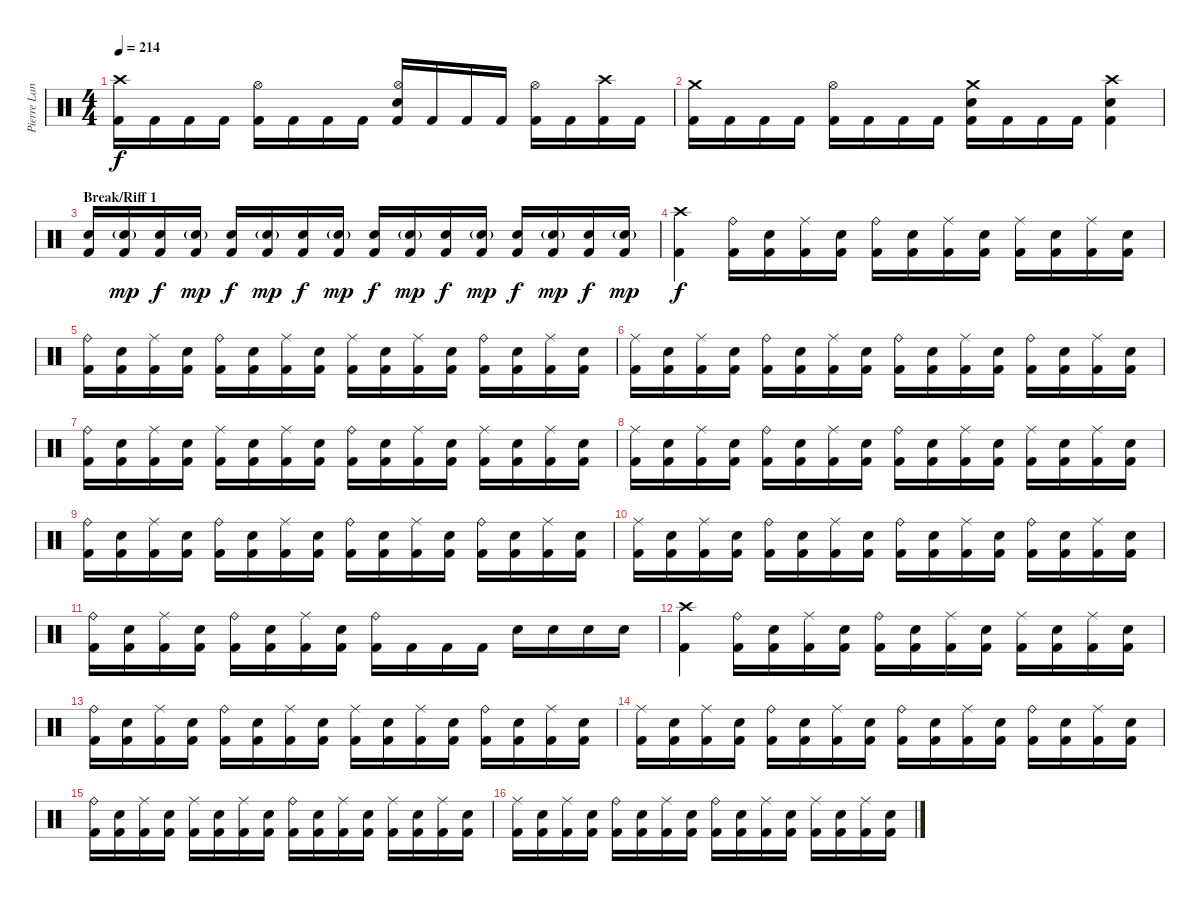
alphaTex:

\track ("Pierre Langlois (Drums)" "Pierre Lan") {instrument percussion}
\staff {score}
\articulation defaults
\ts (4 4)
\tempo 214
\clef neutral
\ks c
("Crash high (hit)" "Kick (hit) 2").16{dy f} "Kick (hit) 2".16 "Kick (hit) 2".16 "Kick (hit) 2".16 ("Hi-Hat (open)" "Kick (hit) 2").16 "Kick (hit) 2".16 "Kick (hit) 2".16 "Kick (hit) 2".16 ("Hi-Hat (open)" "Snare (hit) 2" "Kick (hit) 2").16 "Kick (hit) 2".16 "Kick (hit) 2".16 "Kick (hit) 2".16 ("Hi-Hat (open)" "Kick (hit) 2").16 "Kick (hit) 2".16 ("Crash high (hit)" "Kick (hit) 2").16 "Kick (hit) 2".16 |
("Crash medium (hit)" "Kick (hit) 2").16 "Kick (hit) 2".16 "Kick (hit) 2".16 "Kick (hit) 2".16 ("Hi-Hat (open)" "Kick (hit) 2").16 "Kick (hit) 2".16 "Kick (hit) 2".16 "Kick (hit) 2".16 ("Crash medium (hit)" "Snare (hit) 2" "Kick (hit) 2").16 "Kick (hit) 2".16 "Kick (hit) 2".16 "Kick (hit) 2".16 ("Crash high (hit)" "Snare (hit) 2" "Kick (hit) 2").4 |
\section ("" "Break/Riff 1")
("Snare (hit) 2" "Kick (hit) 2").16 ("Snare (hit) 2"{g} "Kick (hit) 2").16{dy mp} ("Snare (hit) 2" "Kick (hit) 2").16{dy f} ("Snare (hit) 2"{g} "Kick (hit) 2").16{dy mp} ("Snare (hit) 2" "Kick (hit) 2").16{dy f} ("Snare (hit) 2"{g} "Kick (hit) 2").16{dy mp} ("Snare (hit) 2" "Kick (hit) 2").16{dy f} ("Snare (hit) 2"{g} "Kick (hit) 2").16{dy mp} ("Snare (hit) 2" "Kick (hit) 2").16{dy f} ("Snare (hit) 2"{g} "Kick (hit) 2").16{dy mp} ("Snare (hit) 2" "Kick (hit) 2").16{dy f} ("Snare (hit) 2"{g} "Kick (hit) 2").16{dy mp} ("Snare (hit) 2" "Kick (hit) 2").16{dy f} ("Snare (hit) 2"{g} "Kick (hit) 2").16{dy mp} ("Snare (hit) 2" "Kick (hit) 2").16{dy f} ("Snare (hit) 2"{g} "Kick (hit) 2").16{dy mp} |
("Crash high (hit)" "Kick (hit) 2").4{dy f} ("Ride (bell)" "Kick (hit) 2").16 ("Snare (hit) 2" "Kick (hit) 2").16 ("Ride (middle)" "Kick (hit) 2").16 ("Snare (hit) 2" "Kick (hit) 2").16 ("Ride (bell)" "Kick (hit) 2").16 ("Snare (hit) 2" "Kick (hit) 2").16 ("Ride (middle)" "Kick (hit) 2").16 ("Snare (hit) 2" "Kick (hit) 2").16 ("Ride (middle)" "Kick (hit) 2").16 ("Snare (hit) 2" "Kick (hit) 2").16 ("Ride (middle)" "Kick (hit) 2").16 ("Snare (hit) 2" "Kick (hit) 2").16 |
("Ride (bell)" "Kick (hit) 2").16 ("Snare (hit) 2" "Kick (hit) 2").16 ("Ride (middle)" "Kick (hit) 2").16 ("Snare (hit) 2" "Kick (hit) 2").16 ("Ride (bell)" "Kick (hit) 2").16 ("Snare (hit) 2" "Kick (hit) 2").16 ("Ride (middle)" "Kick (hit) 2").16 ("Snare (hit) 2" "Kick (hit) 2").16 ("Ride (middle)" "Kick (hit) 2").16 ("Snare (hit) 2" "Kick (hit) 2").16 ("Ride (middle)" "Kick (hit) 2").16 ("Snare (hit) 2" "Kick (hit) 2").16 ("Ride (bell)" "Kick (hit) 2").16 ("Snare (hit) 2" "Kick (hit) 2").16 ("Ride (middle)" "Kick (hit) 2").16 ("Snare (hit) 2" "Kick (hit) 2").16 |
("Ride (middle)" "Kick (hit) 2").16 ("Snare (hit) 2" "Kick (hit) 2").16 ("Ride (middle)" "Kick (hit) 2").16 ("Snare (hit) 2" "Kick (hit) 2").16 ("Ride (bell)" "Kick (hit) 2").16 ("Snare (hit) 2" "Kick (hit) 2").16 ("Ride (middle)" "Kick (hit) 2").16 ("Snare (hit) 2" "Kick (hit) 2").16 ("Ride (bell)" "Kick (hit) 2").16 ("Snare (hit) 2" "Kick (hit) 2").16 ("Ride (middle)" "Kick (hit) 2").16 ("Snare (hit) 2" "Kick (hit) 2").16 ("Ride (bell)" "Kick (hit) 2").16 ("Snare (hit) 2" "Kick (hit) 2").16 ("Ride (middle)" "Kick (hit) 2").16 ("Snare (hit) 2" "Kick (hit) 2").16 |
("Ride (bell)" "Kick (hit) 2").16 ("Snare (hit) 2" "Kick (hit) 2").16 ("Ride (middle)" "Kick (hit) 2").16 ("Snare (hit) 2" "Kick (hit) 2").16 ("Ride (middle)" "Kick (hit) 2").16 ("Snare (hit) 2" "Kick (hit) 2").16 ("Ride (middle)" "Kick (hit) 2").16 ("Snare (hit) 2" "Kick (hit) 2").16 ("Ride (bell)" "Kick (hit) 2").16 ("Snare (hit) 2" "Kick (hit) 2").16 ("Ride (middle)" "Kick (hit) 2").16 ("Snare (hit) 2" "Kick (hit) 2").16 ("Ride (middle)" "Kick (hit) 2").16 ("Snare (hit) 2" "Kick (hit) 2").16 ("Ride (middle)" "Kick (hit) 2").16 ("Snare (hit) 2" "Kick (hit) 2").16 |
("Ride (middle)" "Kick (hit) 2").16 ("Snare (hit) 2" "Kick (hit) 2").16 ("Ride (middle)" "Kick (hit) 2").16 ("Snare (hit) 2" "Kick (hit) 2").16 ("Ride (bell)" "Kick (hit) 2").16 ("Snare (hit) 2" "Kick (hit) 2").16 ("Ride (middle)" "Kick (hit) 2").16 ("Snare (hit) 2" "Kick (hit) 2").16 ("Ride (bell)" "Kick (hit) 2").16 ("Snare (hit) 2" "Kick (hit) 2").16 ("Ride (middle)" "Kick (hit) 2").16 ("Snare (hit) 2" "Kick (hit) 2").16 ("Ride (middle)" "Kick (hit) 2").16 ("Snare (hit) 2" "Kick (hit) 2").16 ("Ride (middle)" "Kick (hit) 2").16 ("Snare (hit) 2" "Kick (hit) 2").16 |
("Ride (bell)" "Kick (hit) 2").16 ("Snare (hit) 2" "Kick (hit) 2").16 ("Ride (middle)" "Kick (hit) 2").16 ("Snare (hit) 2" "Kick (hit) 2").16 ("Ride (bell)" "Kick (hit) 2").16 ("Snare (hit) 2" "Kick (hit) 2").16 ("Ride (middle)" "Kick (hit) 2").16 ("Snare (hit) 2" "Kick (hit) 2").16 ("Ride (bell)" "Kick (hit) 2").16 ("Snare (hit) 2" "Kick (hit) 2").16 ("Ride (middle)" "Kick (hit) 2").16 ("Snare (hit) 2" "Kick (hit) 2").16 ("Ride (bell)" "Kick (hit) 2").16 ("Snare (hit) 2" "Kick (hit) 2").16 ("Ride (middle)" "Kick (hit) 2").16 ("Snare (hit) 2" "Kick (hit) 2").16 |
("Ride (middle)" "Kick (hit) 2").16 ("Snare (hit) 2" "Kick (hit) 2").16 ("Ride (middle)" "Kick (hit) 2").16 ("Snare (hit) 2" "Kick (hit) 2").16 ("Ride (bell)" "Kick (hit) 2").16 ("Snare (hit) 2" "Kick (hit) 2").16 ("Ride (middle)" "Kick (hit) 2").16 ("Snare (hit) 2" "Kick (hit) 2").16 ("Ride (bell)" "Kick (hit) 2").16 ("Snare (hit) 2" "Kick (hit) 2").16 ("Ride (middle)" "Kick (hit) 2").16 ("Snare (hit) 2" "Kick (hit) 2").16 ("Ride (bell)" "Kick (hit) 2").16 ("Snare (hit) 2" "Kick (hit) 2").16 ("Ride (middle)" "Kick (hit) 2").16 ("Snare (hit) 2" "Kick (hit) 2").16 |
("Ride (bell)" "Kick (hit) 2").16 ("Snare (hit) 2" "Kick (hit) 2").16 ("Ride (middle)" "Kick (hit) 2").16 ("Snare (hit) 2" "Kick (hit) 2").16 ("Ride (bell)" "Kick (hit) 2").16 ("Snare (hit) 2" "Kick (hit) 2").16 ("Ride (middle)" "Kick (hit) 2").16 ("Snare (hit) 2" "Kick (hit) 2").16 ("Ride (bell)" "Kick (hit) 2").16 "Kick (hit) 2".16 "Kick (hit) 2".16 "Kick (hit) 2".16 "Snare (hit) 2".16 "Snare (hit) 2".16 "Snare (hit) 2".16 "Snare (hit) 2".16 |
("Crash high (hit)" "Kick (hit) 2").4 ("Ride (bell)" "Kick (hit) 2").16 ("Snare (hit) 2" "Kick (hit) 2").16 ("Ride (middle)" "Kick (hit) 2").16 ("Snare (hit) 2" "Kick (hit) 2").16 ("Ride (bell)" "Kick (hit) 2").16 ("Snare (hit) 2" "Kick (hit) 2").16 ("Ride (middle)" "Kick (hit) 2").16 ("Snare (hit) 2" "Kick (hit) 2").16 ("Ride (middle)" "Kick (hit) 2").16 ("Snare (hit) 2" "Kick (hit) 2").16 ("Ride (middle)" "Kick (hit) 2").16 ("Snare (hit) 2" "Kick (hit) 2").16 |
("Ride (bell)" "Kick (hit) 2").16 ("Snare (hit) 2" "Kick (hit) 2").16 ("Ride (middle)" "Kick (hit) 2").16 ("Snare (hit) 2" "Kick (hit) 2").16 ("Ride (bell)" "Kick (hit) 2").16 ("Snare (hit) 2" "Kick (hit) 2").16 ("Ride (middle)" "Kick (hit) 2").16 ("Snare (hit) 2" "Kick (hit) 2").16 ("Ride (middle)" "Kick (hit) 2").16 ("Snare (hit) 2" "Kick (hit) 2").16 ("Ride (middle)" "Kick (hit) 2").16 ("Snare (hit) 2" "Kick (hit) 2").16 ("Ride (bell)" "Kick (hit) 2").16 ("Snare (hit) 2" "Kick (hit) 2").16 ("Ride (middle)" "Kick (hit) 2").16 ("Snare (hit) 2" "Kick (hit) 2").16 |
("Ride (middle)" "Kick (hit) 2").16 ("Snare (hit) 2" "Kick (hit) 2").16 ("Ride (middle)" "Kick (hit) 2").16 ("Snare (hit) 2" "Kick (hit) 2").16 ("Ride (bell)" "Kick (hit) 2").16 ("Snare (hit) 2" "Kick (hit) 2").16 ("Ride (middle)" "Kick (hit) 2").16 ("Snare (hit) 2" "Kick (hit) 2").16 ("Ride (bell)" "Kick (hit) 2").16 ("Snare (hit) 2" "Kick (hit) 2").16 ("Ride (middle)" "Kick (hit) 2").16 ("Snare (hit) 2" "Kick (hit) 2").16 ("Ride (bell)" "Kick (hit) 2").16 ("Snare (hit) 2" "Kick (hit) 2").16 ("Ride (middle)" "Kick (hit) 2").16 ("Snare (hit) 2" "Kick (hit) 2").16 |
("Ride (bell)" "Kick (hit) 2").16 ("Snare (hit) 2" "Kick (hit) 2").16 ("Ride (middle)" "Kick (hit) 2").16 ("Snare (hit) 2" "Kick (hit) 2").16 ("Ride (middle)" "Kick (hit) 2").16 ("Snare (hit) 2" "Kick (hit) 2").16 ("Ride (middle)" "Kick (hit) 2").16 ("Snare (hit) 2" "Kick (hit) 2").16 ("Ride (bell)" "Kick (hit) 2").16 ("Snare (hit) 2" "Kick (hit) 2").16 ("Ride (middle)" "Kick (hit) 2").16 ("Snare (hit) 2" "Kick (hit) 2").16 ("Ride (middle)" "Kick (hit) 2").16 ("Snare (hit) 2" "Kick (hit) 2").16 ("Ride (middle)" "Kick (hit) 2").16 ("Snare (hit) 2" "Kick (hit) 2").16 |
("Ride (middle)" "Kick (hit) 2").16 ("Snare (hit) 2" "Kick (hit) 2").16 ("Ride (middle)" "Kick (hit) 2").16 ("Snare (hit) 2" "Kick (hit) 2").16 ("Ride (bell)" "Kick (hit) 2").16 ("Snare (hit) 2" "Kick (hit) 2").16 ("Ride (middle)" "Kick (hit) 2").16 ("Snare (hit) 2" "Kick (hit) 2").16 ("Ride (bell)" "Kick (hit) 2").16 ("Snare (hit) 2" "Kick (hit) 2").16 ("Ride (middle)" "Kick (hit) 2").16 ("Snare (hit) 2" "Kick (hit) 2").16 ("Ride (middle)" "Kick (hit) 2").16 ("Snare (hit) 2" "Kick (hit) 2").16 ("Ride (middle)" "Kick (hit) 2").16 ("Snare (hit) 2" "Kick (hit) 2").16
